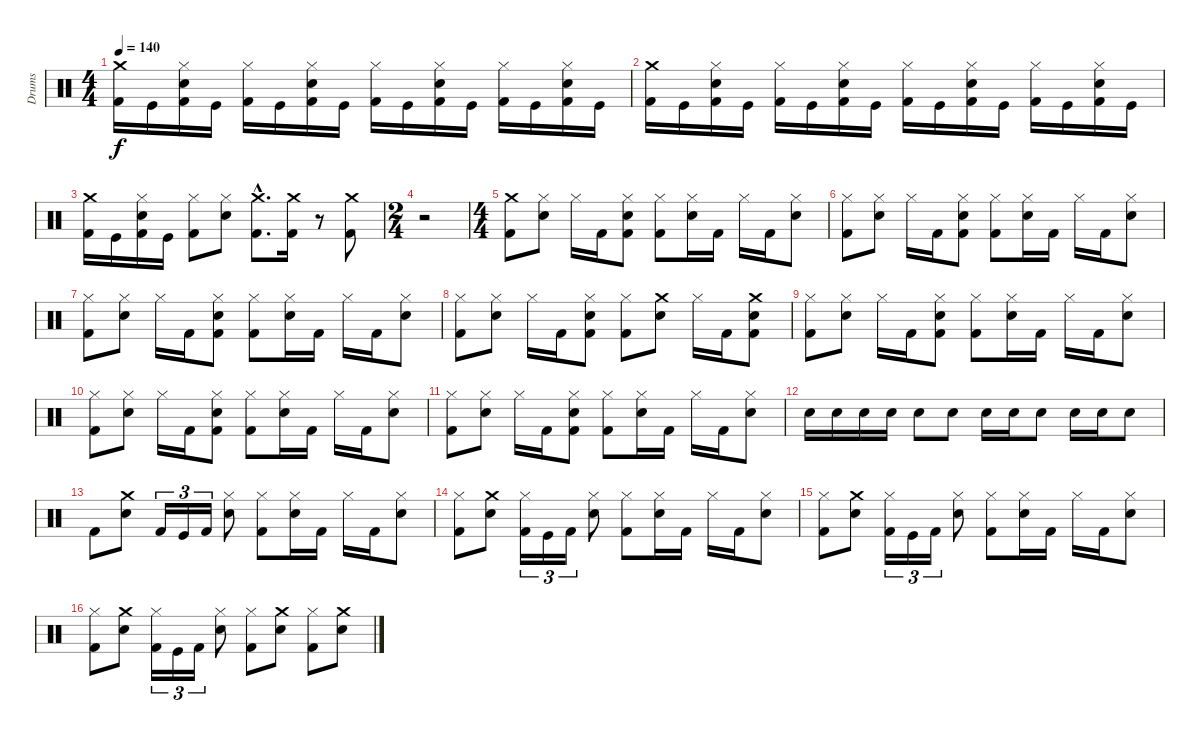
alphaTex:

\track ("Drums" "Drums") {instrument percussion}
\staff {score}
\articulation defaults
\ts (4 4)
\tempo 140
\clef neutral
\ks c
("Crash medium (hit)" "Kick (hit) 2").16{dy f} "Kick (hit)".16 ("Snare (hit) 2" "Hi-Hat (closed)" "Kick (hit) 2").16 "Kick (hit)".16 ("Hi-Hat (closed)" "Kick (hit) 2").16 "Kick (hit)".16 ("Snare (hit) 2" "Hi-Hat (closed)" "Kick (hit) 2").16 "Kick (hit)".16 ("Hi-Hat (closed)" "Kick (hit) 2").16 "Kick (hit)".16 ("Snare (hit) 2" "Hi-Hat (closed)" "Kick (hit) 2").16 "Kick (hit)".16 ("Hi-Hat (closed)" "Kick (hit) 2").16 "Kick (hit)".16 ("Snare (hit) 2" "Hi-Hat (closed)" "Kick (hit) 2").16 "Kick (hit)".16 |
("Crash medium (hit)" "Kick (hit) 2").16 "Kick (hit)".16 ("Snare (hit) 2" "Hi-Hat (closed)" "Kick (hit) 2").16 "Kick (hit)".16 ("Hi-Hat (closed)" "Kick (hit) 2").16 "Kick (hit)".16 ("Snare (hit) 2" "Hi-Hat (closed)" "Kick (hit) 2").16 "Kick (hit)".16 ("Hi-Hat (closed)" "Kick (hit) 2").16 "Kick (hit)".16 ("Snare (hit) 2" "Hi-Hat (closed)" "Kick (hit) 2").16 "Kick (hit)".16 ("Hi-Hat (closed)" "Kick (hit) 2").16 "Kick (hit)".16 ("Snare (hit) 2" "Hi-Hat (closed)" "Kick (hit) 2").16 "Kick (hit)".16 |
("Crash medium (hit)" "Kick (hit) 2").16 "Kick (hit)".16 ("Snare (hit) 2" "Hi-Hat (closed)" "Kick (hit) 2").16 "Kick (hit)".16 ("Hi-Hat (closed)" "Kick (hit) 2").8 ("Snare (hit) 2" "Hi-Hat (closed)").8 ("Crash medium (hit)"{hac} "Kick (hit) 2"{hac}).8{d} ("Crash medium (hit)" "Kick (hit) 2").16 r.8 ("Crash medium (hit)" "Kick (hit) 2").8 |
\ts (2 4)
r.2 |
\ts (4 4)
("Crash medium (hit)" "Kick (hit) 2").8 ("Snare (hit) 2" "Hi-Hat (closed)").8 "Hi-Hat (closed)".16 "Kick (hit) 2".16 ("Kick (hit) 2" "Snare (hit) 2" "Hi-Hat (closed)").8 ("Kick (hit) 2" "Hi-Hat (closed)").8 ("Snare (hit) 2" "Hi-Hat (closed)").16 "Kick (hit) 2".16 "Hi-Hat (closed)".16 "Kick (hit) 2".16 ("Snare (hit) 2" "Hi-Hat (closed)").8 |
("Hi-Hat (closed)" "Kick (hit) 2").8 ("Snare (hit) 2" "Hi-Hat (closed)").8 "Hi-Hat (closed)".16 "Kick (hit) 2".16 ("Snare (hit) 2" "Hi-Hat (closed)" "Kick (hit) 2").8 ("Hi-Hat (closed)" "Kick (hit) 2").8 ("Snare (hit) 2" "Hi-Hat (closed)").16 "Kick (hit) 2".16 "Hi-Hat (closed)".16 "Kick (hit) 2".16 ("Snare (hit) 2" "Hi-Hat (closed)").8 |
("Hi-Hat (closed)" "Kick (hit) 2").8 ("Snare (hit) 2" "Hi-Hat (closed)").8 "Hi-Hat (closed)".16 "Kick (hit) 2".16 ("Kick (hit) 2" "Snare (hit) 2" "Hi-Hat (closed)").8 ("Kick (hit) 2" "Hi-Hat (closed)").8 ("Snare (hit) 2" "Hi-Hat (closed)").16 "Kick (hit) 2".16 "Hi-Hat (closed)".16 "Kick (hit) 2".16 ("Snare (hit) 2" "Hi-Hat (closed)").8 |
("Hi-Hat (closed)" "Kick (hit) 2").8 ("Snare (hit) 2" "Hi-Hat (closed)").8 "Hi-Hat (closed)".16 "Kick (hit) 2".16 ("Kick (hit) 2" "Snare (hit) 2" "Hi-Hat (closed)").8 ("Hi-Hat (closed)" "Kick (hit) 2").8 ("Crash medium (hit)" "Snare (hit) 2").8 "Hi-Hat (closed)".16 "Kick (hit) 2".16 ("Kick (hit) 2" "Crash medium (hit)" "Snare (hit) 2").8 |
("Hi-Hat (closed)" "Kick (hit) 2").8 ("Snare (hit) 2" "Hi-Hat (closed)").8 "Hi-Hat (closed)".16 "Kick (hit) 2".16 ("Kick (hit) 2" "Snare (hit) 2" "Hi-Hat (closed)").8 ("Kick (hit) 2" "Hi-Hat (closed)").8 ("Snare (hit) 2" "Hi-Hat (closed)").16 "Kick (hit) 2".16 "Hi-Hat (closed)".16 "Kick (hit) 2".16 ("Snare (hit) 2" "Hi-Hat (closed)").8 |
("Hi-Hat (closed)" "Kick (hit) 2").8 ("Snare (hit) 2" "Hi-Hat (closed)").8 "Hi-Hat (closed)".16 "Kick (hit) 2".16 ("Snare (hit) 2" "Hi-Hat (closed)" "Kick (hit) 2").8 ("Hi-Hat (closed)" "Kick (hit) 2").8 ("Snare (hit) 2" "Hi-Hat (closed)").16 "Kick (hit) 2".16 "Hi-Hat (closed)".16 "Kick (hit) 2".16 ("Snare (hit) 2" "Hi-Hat (closed)").8 |
("Hi-Hat (closed)" "Kick (hit) 2").8 ("Snare (hit) 2" "Hi-Hat (closed)").8 "Hi-Hat (closed)".16 "Kick (hit) 2".16 ("Kick (hit) 2" "Snare (hit) 2" "Hi-Hat (closed)").8 ("Kick (hit) 2" "Hi-Hat (closed)").8 ("Snare (hit) 2" "Hi-Hat (closed)").16 "Kick (hit) 2".16 "Hi-Hat (closed)".16 "Kick (hit) 2".16 ("Snare (hit) 2" "Hi-Hat (closed)").8 |
"Snare (hit) 2".16 "Snare (hit) 2".16 "Snare (hit) 2".16 "Snare (hit) 2".16 "Snare (hit) 2".8 "Snare (hit) 2".8 "Snare (hit) 2".16 "Snare (hit) 2".16 "Snare (hit) 2".8 "Snare (hit) 2".16 "Snare (hit) 2".16 "Snare (hit) 2".8 |
"Kick (hit) 2".8 ("Snare (hit) 2" "Crash medium (hit)").8 "Kick (hit) 2".16{tu (3 2)} "Kick (hit)".16{tu (3 2)} "Kick (hit) 2".16{tu (3 2)} ("Hi-Hat (closed)" "Snare (hit) 2").8 ("Hi-Hat (closed)" "Kick (hit) 2").8 ("Snare (hit) 2" "Hi-Hat (closed)").16 "Kick (hit) 2".16 "Hi-Hat (closed)".16 "Kick (hit) 2".16 ("Snare (hit) 2" "Hi-Hat (closed)").8 |
("Hi-Hat (closed)" "Kick (hit) 2").8 ("Crash medium (hit)" "Snare (hit) 2").8 ("Hi-Hat (closed)" "Kick (hit) 2").16{tu (3 2)} "Kick (hit)".16{tu (3 2)} "Kick (hit) 2".16{tu (3 2)} ("Snare (hit) 2" "Hi-Hat (closed)").8 ("Hi-Hat (closed)" "Kick (hit) 2").8 ("Snare (hit) 2" "Hi-Hat (closed)").16 "Kick (hit) 2".16 "Hi-Hat (closed)".16 "Kick (hit) 2".16 ("Snare (hit) 2" "Hi-Hat (closed)").8 |
("Hi-Hat (closed)" "Kick (hit) 2").8 ("Crash medium (hit)" "Snare (hit) 2").8 ("Hi-Hat (closed)" "Kick (hit) 2").16{tu (3 2)} "Kick (hit)".16{tu (3 2)} "Kick (hit) 2".16{tu (3 2)} ("Snare (hit) 2" "Hi-Hat (closed)").8 ("Hi-Hat (closed)" "Kick (hit) 2").8 ("Snare (hit) 2" "Hi-Hat (closed)").16 "Kick (hit) 2".16 "Hi-Hat (closed)".16 "Kick (hit) 2".16 ("Snare (hit) 2" "Hi-Hat (closed)").8 |
("Kick (hit) 2" "Hi-Hat (closed)").8 ("Crash medium (hit)" "Snare (hit) 2").8 ("Hi-Hat (closed)" "Kick (hit) 2").16{tu (3 2)} "Kick (hit)".16{tu (3 2)} "Kick (hit) 2".16{tu (3 2)} ("Snare (hit) 2" "Hi-Hat (closed)").8 ("Kick (hit) 2" "Hi-Hat (closed)").8 ("Crash medium (hit)" "Snare (hit) 2").8 ("Kick (hit) 2" "Hi-Hat (closed)").8 ("Crash medium (hit)" "Snare (hit) 2").8
